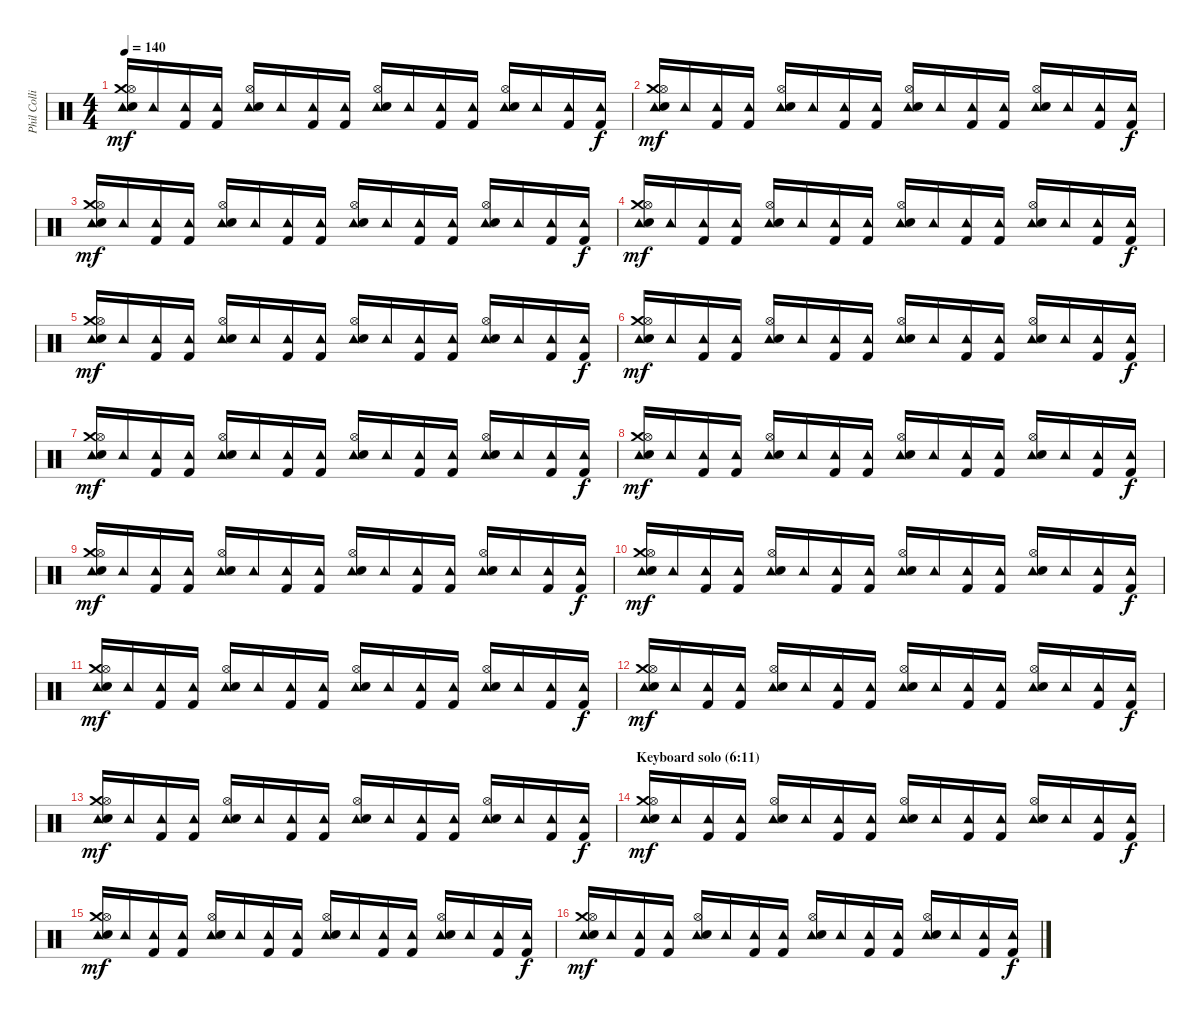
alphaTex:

\track ("Phil Collins (drums)" "Phil Colli") {instrument percussion}
\staff {score}
\articulation defaults
\ts (4 4)
\tempo 140
\clef neutral
\ks c
("Tambourine (hit)" "Crash medium (hit)" "Hi-Hat (open)" "Electric Snare (hit)").16{dy mf} "Tambourine (hit)".16 ("Tambourine (hit)" "Kick (hit) 2").16 ("Tambourine (hit)" "Kick (hit) 2").16 ("Tambourine (hit)" "Hi-Hat (open)" "Electric Snare (hit)").16 "Tambourine (hit)".16 ("Tambourine (hit)" "Kick (hit) 2").16 ("Tambourine (hit)" "Kick (hit) 2").16 ("Tambourine (hit)" "Hi-Hat (open)" "Electric Snare (hit)").16 "Tambourine (hit)".16 ("Tambourine (hit)" "Kick (hit) 2").16 ("Tambourine (hit)" "Kick (hit) 2").16 ("Tambourine (hit)" "Hi-Hat (open)" "Electric Snare (hit)").16 "Tambourine (hit)".16 ("Tambourine (hit)" "Kick (hit) 2").16 ("Tambourine (hit)" "Kick (hit) 2").16{dy f} |
("Tambourine (hit)" "Crash medium (hit)" "Hi-Hat (open)" "Electric Snare (hit)").16{dy mf} "Tambourine (hit)".16 ("Tambourine (hit)" "Kick (hit) 2").16 ("Tambourine (hit)" "Kick (hit) 2").16 ("Tambourine (hit)" "Hi-Hat (open)" "Electric Snare (hit)").16 "Tambourine (hit)".16 ("Tambourine (hit)" "Kick (hit) 2").16 ("Tambourine (hit)" "Kick (hit) 2").16 ("Tambourine (hit)" "Hi-Hat (open)" "Electric Snare (hit)").16 "Tambourine (hit)".16 ("Tambourine (hit)" "Kick (hit) 2").16 ("Tambourine (hit)" "Kick (hit) 2").16 ("Tambourine (hit)" "Hi-Hat (open)" "Electric Snare (hit)").16 "Tambourine (hit)".16 ("Tambourine (hit)" "Kick (hit) 2").16 ("Tambourine (hit)" "Kick (hit) 2").16{dy f} |
("Tambourine (hit)" "Crash medium (hit)" "Hi-Hat (open)" "Electric Snare (hit)").16{dy mf} "Tambourine (hit)".16 ("Tambourine (hit)" "Kick (hit) 2").16 ("Tambourine (hit)" "Kick (hit) 2").16 ("Tambourine (hit)" "Hi-Hat (open)" "Electric Snare (hit)").16 "Tambourine (hit)".16 ("Tambourine (hit)" "Kick (hit) 2").16 ("Tambourine (hit)" "Kick (hit) 2").16 ("Tambourine (hit)" "Hi-Hat (open)" "Electric Snare (hit)").16 "Tambourine (hit)".16 ("Tambourine (hit)" "Kick (hit) 2").16 ("Tambourine (hit)" "Kick (hit) 2").16 ("Tambourine (hit)" "Hi-Hat (open)" "Electric Snare (hit)").16 "Tambourine (hit)".16 ("Tambourine (hit)" "Kick (hit) 2").16 ("Tambourine (hit)" "Kick (hit) 2").16{dy f} |
("Tambourine (hit)" "Crash medium (hit)" "Hi-Hat (open)" "Electric Snare (hit)").16{dy mf} "Tambourine (hit)".16 ("Tambourine (hit)" "Kick (hit) 2").16 ("Tambourine (hit)" "Kick (hit) 2").16 ("Tambourine (hit)" "Hi-Hat (open)" "Electric Snare (hit)").16 "Tambourine (hit)".16 ("Tambourine (hit)" "Kick (hit) 2").16 ("Tambourine (hit)" "Kick (hit) 2").16 ("Tambourine (hit)" "Hi-Hat (open)" "Electric Snare (hit)").16 "Tambourine (hit)".16 ("Tambourine (hit)" "Kick (hit) 2").16 ("Tambourine (hit)" "Kick (hit) 2").16 ("Tambourine (hit)" "Hi-Hat (open)" "Electric Snare (hit)").16 "Tambourine (hit)".16 ("Tambourine (hit)" "Kick (hit) 2").16 ("Tambourine (hit)" "Kick (hit) 2").16{dy f} |
("Tambourine (hit)" "Crash medium (hit)" "Hi-Hat (open)" "Electric Snare (hit)").16{dy mf} "Tambourine (hit)".16 ("Tambourine (hit)" "Kick (hit) 2").16 ("Tambourine (hit)" "Kick (hit) 2").16 ("Tambourine (hit)" "Hi-Hat (open)" "Electric Snare (hit)").16 "Tambourine (hit)".16 ("Tambourine (hit)" "Kick (hit) 2").16 ("Tambourine (hit)" "Kick (hit) 2").16 ("Tambourine (hit)" "Hi-Hat (open)" "Electric Snare (hit)").16 "Tambourine (hit)".16 ("Tambourine (hit)" "Kick (hit) 2").16 ("Tambourine (hit)" "Kick (hit) 2").16 ("Tambourine (hit)" "Hi-Hat (open)" "Electric Snare (hit)").16 "Tambourine (hit)".16 ("Tambourine (hit)" "Kick (hit) 2").16 ("Tambourine (hit)" "Kick (hit) 2").16{dy f} |
("Tambourine (hit)" "Crash medium (hit)" "Hi-Hat (open)" "Electric Snare (hit)").16{dy mf} "Tambourine (hit)".16 ("Tambourine (hit)" "Kick (hit) 2").16 ("Tambourine (hit)" "Kick (hit) 2").16 ("Tambourine (hit)" "Hi-Hat (open)" "Electric Snare (hit)").16 "Tambourine (hit)".16 ("Tambourine (hit)" "Kick (hit) 2").16 ("Tambourine (hit)" "Kick (hit) 2").16 ("Tambourine (hit)" "Hi-Hat (open)" "Electric Snare (hit)").16 "Tambourine (hit)".16 ("Tambourine (hit)" "Kick (hit) 2").16 ("Tambourine (hit)" "Kick (hit) 2").16 ("Tambourine (hit)" "Hi-Hat (open)" "Electric Snare (hit)").16 "Tambourine (hit)".16 ("Tambourine (hit)" "Kick (hit) 2").16 ("Tambourine (hit)" "Kick (hit) 2").16{dy f} |
("Tambourine (hit)" "Crash medium (hit)" "Hi-Hat (open)" "Electric Snare (hit)").16{dy mf} "Tambourine (hit)".16 ("Tambourine (hit)" "Kick (hit) 2").16 ("Tambourine (hit)" "Kick (hit) 2").16 ("Tambourine (hit)" "Hi-Hat (open)" "Electric Snare (hit)").16 "Tambourine (hit)".16 ("Tambourine (hit)" "Kick (hit) 2").16 ("Tambourine (hit)" "Kick (hit) 2").16 ("Tambourine (hit)" "Hi-Hat (open)" "Electric Snare (hit)").16 "Tambourine (hit)".16 ("Tambourine (hit)" "Kick (hit) 2").16 ("Tambourine (hit)" "Kick (hit) 2").16 ("Tambourine (hit)" "Hi-Hat (open)" "Electric Snare (hit)").16 "Tambourine (hit)".16 ("Tambourine (hit)" "Kick (hit) 2").16 ("Tambourine (hit)" "Kick (hit) 2").16{dy f} |
("Tambourine (hit)" "Crash medium (hit)" "Hi-Hat (open)" "Electric Snare (hit)").16{dy mf} "Tambourine (hit)".16 ("Tambourine (hit)" "Kick (hit) 2").16 ("Tambourine (hit)" "Kick (hit) 2").16 ("Tambourine (hit)" "Hi-Hat (open)" "Electric Snare (hit)").16 "Tambourine (hit)".16 ("Tambourine (hit)" "Kick (hit) 2").16 ("Tambourine (hit)" "Kick (hit) 2").16 ("Tambourine (hit)" "Hi-Hat (open)" "Electric Snare (hit)").16 "Tambourine (hit)".16 ("Tambourine (hit)" "Kick (hit) 2").16 ("Tambourine (hit)" "Kick (hit) 2").16 ("Tambourine (hit)" "Hi-Hat (open)" "Electric Snare (hit)").16 "Tambourine (hit)".16 ("Tambourine (hit)" "Kick (hit) 2").16 ("Tambourine (hit)" "Kick (hit) 2").16{dy f} |
("Tambourine (hit)" "Crash medium (hit)" "Hi-Hat (open)" "Electric Snare (hit)").16{dy mf} "Tambourine (hit)".16 ("Tambourine (hit)" "Kick (hit) 2").16 ("Tambourine (hit)" "Kick (hit) 2").16 ("Tambourine (hit)" "Hi-Hat (open)" "Electric Snare (hit)").16 "Tambourine (hit)".16 ("Tambourine (hit)" "Kick (hit) 2").16 ("Tambourine (hit)" "Kick (hit) 2").16 ("Tambourine (hit)" "Hi-Hat (open)" "Electric Snare (hit)").16 "Tambourine (hit)".16 ("Tambourine (hit)" "Kick (hit) 2").16 ("Tambourine (hit)" "Kick (hit) 2").16 ("Tambourine (hit)" "Hi-Hat (open)" "Electric Snare (hit)").16 "Tambourine (hit)".16 ("Tambourine (hit)" "Kick (hit) 2").16 ("Tambourine (hit)" "Kick (hit) 2").16{dy f} |
("Tambourine (hit)" "Crash medium (hit)" "Hi-Hat (open)" "Electric Snare (hit)").16{dy mf} "Tambourine (hit)".16 ("Tambourine (hit)" "Kick (hit) 2").16 ("Tambourine (hit)" "Kick (hit) 2").16 ("Tambourine (hit)" "Hi-Hat (open)" "Electric Snare (hit)").16 "Tambourine (hit)".16 ("Tambourine (hit)" "Kick (hit) 2").16 ("Tambourine (hit)" "Kick (hit) 2").16 ("Tambourine (hit)" "Hi-Hat (open)" "Electric Snare (hit)").16 "Tambourine (hit)".16 ("Tambourine (hit)" "Kick (hit) 2").16 ("Tambourine (hit)" "Kick (hit) 2").16 ("Tambourine (hit)" "Hi-Hat (open)" "Electric Snare (hit)").16 "Tambourine (hit)".16 ("Tambourine (hit)" "Kick (hit) 2").16 ("Tambourine (hit)" "Kick (hit) 2").16{dy f} |
("Tambourine (hit)" "Crash medium (hit)" "Hi-Hat (open)" "Electric Snare (hit)").16{dy mf} "Tambourine (hit)".16 ("Tambourine (hit)" "Kick (hit) 2").16 ("Tambourine (hit)" "Kick (hit) 2").16 ("Tambourine (hit)" "Hi-Hat (open)" "Electric Snare (hit)").16 "Tambourine (hit)".16 ("Tambourine (hit)" "Kick (hit) 2").16 ("Tambourine (hit)" "Kick (hit) 2").16 ("Tambourine (hit)" "Hi-Hat (open)" "Electric Snare (hit)").16 "Tambourine (hit)".16 ("Tambourine (hit)" "Kick (hit) 2").16 ("Tambourine (hit)" "Kick (hit) 2").16 ("Tambourine (hit)" "Hi-Hat (open)" "Electric Snare (hit)").16 "Tambourine (hit)".16 ("Tambourine (hit)" "Kick (hit) 2").16 ("Tambourine (hit)" "Kick (hit) 2").16{dy f} |
("Tambourine (hit)" "Crash medium (hit)" "Hi-Hat (open)" "Electric Snare (hit)").16{dy mf} "Tambourine (hit)".16 ("Tambourine (hit)" "Kick (hit) 2").16 ("Tambourine (hit)" "Kick (hit) 2").16 ("Tambourine (hit)" "Hi-Hat (open)" "Electric Snare (hit)").16 "Tambourine (hit)".16 ("Tambourine (hit)" "Kick (hit) 2").16 ("Tambourine (hit)" "Kick (hit) 2").16 ("Tambourine (hit)" "Hi-Hat (open)" "Electric Snare (hit)").16 "Tambourine (hit)".16 ("Tambourine (hit)" "Kick (hit) 2").16 ("Tambourine (hit)" "Kick (hit) 2").16 ("Tambourine (hit)" "Hi-Hat (open)" "Electric Snare (hit)").16 "Tambourine (hit)".16 ("Tambourine (hit)" "Kick (hit) 2").16 ("Tambourine (hit)" "Kick (hit) 2").16{dy f} |
("Tambourine (hit)" "Crash medium (hit)" "Hi-Hat (open)" "Electric Snare (hit)").16{dy mf} "Tambourine (hit)".16 ("Tambourine (hit)" "Kick (hit) 2").16 ("Tambourine (hit)" "Kick (hit) 2").16 ("Tambourine (hit)" "Hi-Hat (open)" "Electric Snare (hit)").16 "Tambourine (hit)".16 ("Tambourine (hit)" "Kick (hit) 2").16 ("Tambourine (hit)" "Kick (hit) 2").16 ("Tambourine (hit)" "Hi-Hat (open)" "Electric Snare (hit)").16 "Tambourine (hit)".16 ("Tambourine (hit)" "Kick (hit) 2").16 ("Tambourine (hit)" "Kick (hit) 2").16 ("Tambourine (hit)" "Hi-Hat (open)" "Electric Snare (hit)").16 "Tambourine (hit)".16 ("Tambourine (hit)" "Kick (hit) 2").16 ("Tambourine (hit)" "Kick (hit) 2").16{dy f} |
\section ("" "Keyboard solo (6:11)")
("Tambourine (hit)" "Crash medium (hit)" "Hi-Hat (open)" "Electric Snare (hit)").16{dy mf} "Tambourine (hit)".16 ("Tambourine (hit)" "Kick (hit) 2").16 ("Tambourine (hit)" "Kick (hit) 2").16 ("Tambourine (hit)" "Hi-Hat (open)" "Electric Snare (hit)").16 "Tambourine (hit)".16 ("Tambourine (hit)" "Kick (hit) 2").16 ("Tambourine (hit)" "Kick (hit) 2").16 ("Tambourine (hit)" "Hi-Hat (open)" "Electric Snare (hit)").16 "Tambourine (hit)".16 ("Tambourine (hit)" "Kick (hit) 2").16 ("Tambourine (hit)" "Kick (hit) 2").16 ("Tambourine (hit)" "Hi-Hat (open)" "Electric Snare (hit)").16 "Tambourine (hit)".16 ("Tambourine (hit)" "Kick (hit) 2").16 ("Tambourine (hit)" "Kick (hit) 2").16{dy f} |
("Tambourine (hit)" "Crash medium (hit)" "Hi-Hat (open)" "Electric Snare (hit)").16{dy mf} "Tambourine (hit)".16 ("Tambourine (hit)" "Kick (hit) 2").16 ("Tambourine (hit)" "Kick (hit) 2").16 ("Tambourine (hit)" "Hi-Hat (open)" "Electric Snare (hit)").16 "Tambourine (hit)".16 ("Tambourine (hit)" "Kick (hit) 2").16 ("Tambourine (hit)" "Kick (hit) 2").16 ("Tambourine (hit)" "Hi-Hat (open)" "Electric Snare (hit)").16 "Tambourine (hit)".16 ("Tambourine (hit)" "Kick (hit) 2").16 ("Tambourine (hit)" "Kick (hit) 2").16 ("Tambourine (hit)" "Hi-Hat (open)" "Electric Snare (hit)").16 "Tambourine (hit)".16 ("Tambourine (hit)" "Kick (hit) 2").16 ("Tambourine (hit)" "Kick (hit) 2").16{dy f} |
("Tambourine (hit)" "Crash medium (hit)" "Hi-Hat (open)" "Electric Snare (hit)").16{dy mf} "Tambourine (hit)".16 ("Tambourine (hit)" "Kick (hit) 2").16 ("Tambourine (hit)" "Kick (hit) 2").16 ("Tambourine (hit)" "Hi-Hat (open)" "Electric Snare (hit)").16 "Tambourine (hit)".16 ("Tambourine (hit)" "Kick (hit) 2").16 ("Tambourine (hit)" "Kick (hit) 2").16 ("Tambourine (hit)" "Hi-Hat (open)" "Electric Snare (hit)").16 "Tambourine (hit)".16 ("Tambourine (hit)" "Kick (hit) 2").16 ("Tambourine (hit)" "Kick (hit) 2").16 ("Tambourine (hit)" "Hi-Hat (open)" "Electric Snare (hit)").16 "Tambourine (hit)".16 ("Tambourine (hit)" "Kick (hit) 2").16 ("Tambourine (hit)" "Kick (hit) 2").16{dy f}
